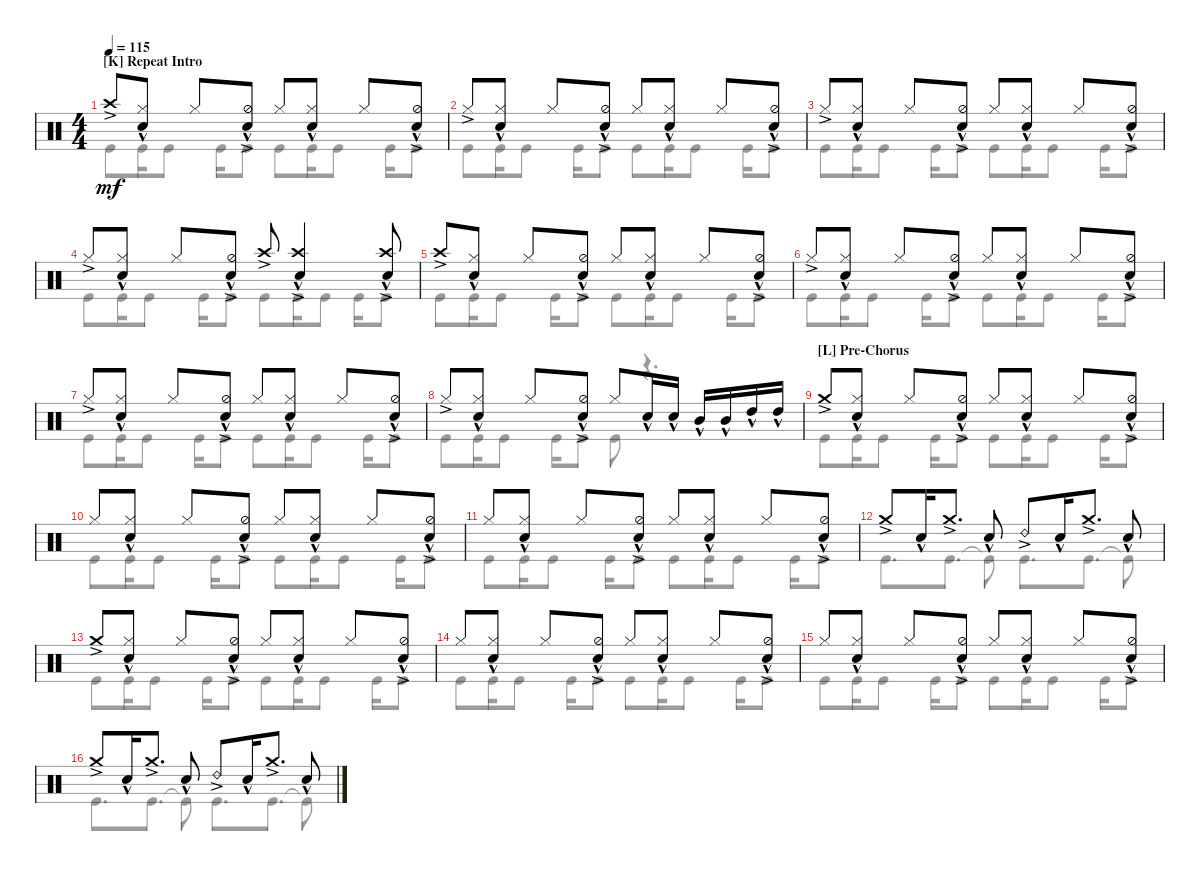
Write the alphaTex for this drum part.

\defaultSystemsLayout 4
\bracketExtendMode groupsimilarinstruments
\singleTrackTrackNamePolicy hidden
\multiTrackTrackNamePolicy hidden
\firstSystemTrackNameOrientation horizontal
\otherSystemsTrackNameOrientation horizontal
\track ("Maksim Udalov" "Drums") {instrument percussion}
\staff {score}
\articulation defaults
\voice
\ts (4 4)
\section ("K" "Repeat Intro")
\tempo 115
\clef neutral
\scale
1.02648
\ks c "Crash high (hit)"{ac}.8{dy mf}
("Hi-Hat (closed)" "Snare (hit) 2"{hac}).8 "Hi-Hat (closed)".8 ("Snare (hit) 2"{hac} "Hi-Hat (half)"{ac}).8 "Hi-Hat (closed)".8 ("Hi-Hat (closed)" "Snare (hit) 2"{hac}).8 "Hi-Hat (closed)".8 ("Snare (hit) 2"{hac} "Hi-Hat (half)"{ac}).8 |
\scale
0.973518 "Hi-Hat (closed)"{ac}.8 ("Hi-Hat (closed)" "Snare (hit) 2"{hac}).8 "Hi-Hat (closed)".8 ("Snare (hit) 2"{hac} "Hi-Hat (half)"{ac}).8 "Hi-Hat (closed)".8 ("Hi-Hat (closed)" "Snare (hit) 2"{hac}).8 "Hi-Hat (closed)".8 ("Snare (hit) 2"{hac} "Hi-Hat (half)"{ac}).8 |
\scale
1.02648 "Hi-Hat (closed)"{ac}.8 ("Hi-Hat (closed)" "Snare (hit) 2"{hac}).8 "Hi-Hat (closed)".8 ("Snare (hit) 2"{hac} "Hi-Hat (half)"{ac}).8 "Hi-Hat (closed)".8 ("Hi-Hat (closed)" "Snare (hit) 2"{hac}).8 "Hi-Hat (closed)".8 ("Snare (hit) 2"{hac} "Hi-Hat (half)"{ac}).8 |
\scale
0.973518 "Hi-Hat (closed)"{ac}.8 ("Hi-Hat (closed)" "Snare (hit) 2"{hac}).8 "Hi-Hat (closed)".8 ("Snare (hit) 2"{hac} "Hi-Hat (half)"{ac}).8 "Crash high (hit)"{ac}.8 ("Snare (hit) 2"{hac} "Crash high (hit)"{ac}).4 ("Snare (hit) 2"{hac} "Crash high (hit)"{ac}).8 |
\scale
1.02648 "Crash high (hit)"{ac}.8 ("Hi-Hat (closed)" "Snare (hit) 2"{hac}).8 "Hi-Hat (closed)".8 ("Snare (hit) 2"{hac} "Hi-Hat (half)"{ac}).8 "Hi-Hat (closed)".8 ("Hi-Hat (closed)" "Snare (hit) 2"{hac}).8 "Hi-Hat (closed)".8 ("Snare (hit) 2"{hac} "Hi-Hat (half)"{ac}).8 |
\scale
0.973518 "Hi-Hat (closed)"{ac}.8 ("Hi-Hat (closed)" "Snare (hit) 2"{hac}).8 "Hi-Hat (closed)".8 ("Snare (hit) 2"{hac} "Hi-Hat (half)"{ac}).8 "Hi-Hat (closed)".8 ("Hi-Hat (closed)" "Snare (hit) 2"{hac}).8 "Hi-Hat (closed)".8 ("Snare (hit) 2"{hac} "Hi-Hat (half)"{ac}).8 |
\scale
1.02648 "Hi-Hat (closed)"{ac}.8 ("Hi-Hat (closed)" "Snare (hit) 2"{hac}).8 "Hi-Hat (closed)".8 ("Snare (hit) 2"{hac} "Hi-Hat (half)"{ac}).8 "Hi-Hat (closed)".8 ("Hi-Hat (closed)" "Snare (hit) 2"{hac}).8 "Hi-Hat (closed)".8 ("Snare (hit) 2"{hac} "Hi-Hat (half)"{ac}).8 |
\scale
0.973518 "Hi-Hat (closed)"{ac}.8 ("Hi-Hat (closed)" "Snare (hit) 2"{hac}).8 "Hi-Hat (closed)".8 ("Snare (hit) 2"{hac} "Hi-Hat (half)"{ac}).8 "Hi-Hat (closed)".8 "Snare (hit) 2"{hac}.16 "Snare (hit) 2"{hac}.16 "Mid Tom (hit)"{hac}.16 "Mid Tom (hit)"{hac}.16 "High Tom (hit)"{hac}.16 "High Tom (hit)"{hac}.16 |
\section ("L" "Pre-Chorus")
\scale
1.02648 "Crash medium (hit)"{ac}.8 ("Hi-Hat (closed)" "Snare (hit) 2"{hac}).8 "Hi-Hat (closed)".8 ("Snare (hit) 2"{hac} "Hi-Hat (half)"{ac}).8 "Hi-Hat (closed)".8 ("Hi-Hat (closed)" "Snare (hit) 2"{hac}).8 "Hi-Hat (closed)".8 ("Snare (hit) 2"{hac} "Hi-Hat (half)"{ac}).8 |
\scale
0.973518 "Hi-Hat (closed)".8 ("Hi-Hat (closed)" "Snare (hit) 2"{hac}).8 "Hi-Hat (closed)".8 ("Snare (hit) 2"{hac} "Hi-Hat (half)"{ac}).8 "Hi-Hat (closed)".8 ("Hi-Hat (closed)" "Snare (hit) 2"{hac}).8 "Hi-Hat (closed)".8 ("Snare (hit) 2"{hac} "Hi-Hat (half)"{ac}).8 |
\scale
1.02648 "Hi-Hat (closed)".8 ("Hi-Hat (closed)" "Snare (hit) 2"{hac}).8 "Hi-Hat (closed)".8 ("Snare (hit) 2"{hac} "Hi-Hat (half)"{ac}).8 "Hi-Hat (closed)".8 ("Hi-Hat (closed)" "Snare (hit) 2"{hac}).8 "Hi-Hat (closed)".8 ("Snare (hit) 2"{hac} "Hi-Hat (half)"{ac}).8 |
\scale
0.973518 "Crash medium (hit)"{ac}.8 "Snare (hit) 2"{hac}.16 "Crash medium (hit)"{ac}.8{d} "Snare (hit) 2"{hac}.8 "Ride (bell) 2"{ac}.8 "Snare (hit) 2"{hac}.16 "Crash medium (hit)"{ac}.8{d} "Snare (hit) 2"{hac}.8 |
\scale
1.02648 "Crash medium (hit)"{ac}.8 ("Hi-Hat (closed)" "Snare (hit) 2"{hac}).8 "Hi-Hat (closed)".8 ("Snare (hit) 2"{hac} "Hi-Hat (half)"{ac}).8 "Hi-Hat (closed)".8 ("Hi-Hat (closed)" "Snare (hit) 2"{hac}).8 "Hi-Hat (closed)".8 ("Snare (hit) 2"{hac} "Hi-Hat (half)"{ac}).8 |
\scale
0.973518 "Hi-Hat (closed)".8 ("Hi-Hat (closed)" "Snare (hit) 2"{hac}).8 "Hi-Hat (closed)".8 ("Snare (hit) 2"{hac} "Hi-Hat (half)"{ac}).8 "Hi-Hat (closed)".8 ("Hi-Hat (closed)" "Snare (hit) 2"{hac}).8 "Hi-Hat (closed)".8 ("Snare (hit) 2"{hac} "Hi-Hat (half)"{ac}).8 |
\scale
1.02648 "Hi-Hat (closed)".8 ("Hi-Hat (closed)" "Snare (hit) 2"{hac}).8 "Hi-Hat (closed)".8 ("Snare (hit) 2"{hac} "Hi-Hat (half)"{ac}).8 "Hi-Hat (closed)".8 ("Hi-Hat (closed)" "Snare (hit) 2"{hac}).8 "Hi-Hat (closed)".8 ("Snare (hit) 2"{hac} "Hi-Hat (half)"{ac}).8 |
\scale
0.973518 "Crash medium (hit)"{ac}.8 "Snare (hit) 2"{hac}.16 "Crash medium (hit)"{ac}.8{d} "Snare (hit) 2"{hac}.8 "Ride (bell) 2"{ac}.8 "Snare (hit) 2"{hac}.16 "Crash medium (hit)"{ac}.8{d} "Snare (hit) 2"{hac}.8
\voice
\clef neutral
\ottava regular
\simile none
\scale
1.02648
\ks c "Kick (hit)".8{dy mf} "Kick (hit)".16 "Kick (hit)".8 "Kick (hit)".16 "Kick (hit)".8 "Kick (hit)".8 "Kick (hit)".16 "Kick (hit)".8 "Kick (hit)".16 "Kick (hit)".8
|
\scale
0.973518 "Kick (hit)".8 "Kick (hit)".16 "Kick (hit)".8 "Kick (hit)".16 "Kick (hit)".8 "Kick (hit)".8 "Kick (hit)".16 "Kick (hit)".8 "Kick (hit)".16 "Kick (hit)".8 |
\scale
1.02648 "Kick (hit)".8 "Kick (hit)".16 "Kick (hit)".8 "Kick (hit)".16 "Kick (hit)".8 "Kick (hit)".8 "Kick (hit)".16 "Kick (hit)".8 "Kick (hit)".16 "Kick (hit)".8 |
\scale
0.973518 "Kick (hit)".8 "Kick (hit)".16 "Kick (hit)".8 "Kick (hit)".16 "Kick (hit)".8 "Kick (hit)".8 "Kick (hit)".16 "Kick (hit)".8 "Kick (hit)".16 "Kick (hit)".8 |
\scale
1.02648 "Kick (hit)".8 "Kick (hit)".16 "Kick (hit)".8 "Kick (hit)".16 "Kick (hit)".8 "Kick (hit)".8 "Kick (hit)".16 "Kick (hit)".8 "Kick (hit)".16 "Kick (hit)".8 |
\scale
0.973518 "Kick (hit)".8 "Kick (hit)".16 "Kick (hit)".8 "Kick (hit)".16 "Kick (hit)".8 "Kick (hit)".8 "Kick (hit)".16 "Kick (hit)".8 "Kick (hit)".16 "Kick (hit)".8 |
\scale
1.02648 "Kick (hit)".8 "Kick (hit)".16 "Kick (hit)".8 "Kick (hit)".16 "Kick (hit)".8 "Kick (hit)".8 "Kick (hit)".16 "Kick (hit)".8 "Kick (hit)".16 "Kick (hit)".8 |
\scale
0.973518 "Kick (hit)".8 "Kick (hit)".16 "Kick (hit)".8 "Kick (hit)".16 "Kick (hit)".8 "Kick (hit)".8 r.4{d} |
\scale
1.02648 "Kick (hit)".8 "Kick (hit)".16 "Kick (hit)".8 "Kick (hit)".16 "Kick (hit)".8 "Kick (hit)".8 "Kick (hit)".16 "Kick (hit)".8 "Kick (hit)".16 "Kick (hit)".8 |
\scale
0.973518 "Kick (hit)".8 "Kick (hit)".16 "Kick (hit)".8 "Kick (hit)".16 "Kick (hit)".8 "Kick (hit)".8 "Kick (hit)".16 "Kick (hit)".8 "Kick (hit)".16 "Kick (hit)".8 |
\scale
1.02648 "Kick (hit)".8 "Kick (hit)".16 "Kick (hit)".8 "Kick (hit)".16 "Kick (hit)".8 "Kick (hit)".8 "Kick (hit)".16 "Kick (hit)".8 "Kick (hit)".16 "Kick (hit)".8 |
\scale
0.973518 "Kick (hit)".8{d} "Kick (hit)".8{d} "Kick (hit)"{t}.8 "Kick (hit)".8{d} "Kick (hit)".8{d} "Kick (hit)"{t}.8 |
\scale
1.02648 "Kick (hit)".8 "Kick (hit)".16 "Kick (hit)".8 "Kick (hit)".16 "Kick (hit)".8 "Kick (hit)".8 "Kick (hit)".16 "Kick (hit)".8 "Kick (hit)".16 "Kick (hit)".8 |
\scale
0.973518 "Kick (hit)".8 "Kick (hit)".16 "Kick (hit)".8 "Kick (hit)".16 "Kick (hit)".8 "Kick (hit)".8 "Kick (hit)".16 "Kick (hit)".8 "Kick (hit)".16 "Kick (hit)".8 |
\scale
1.02648 "Kick (hit)".8 "Kick (hit)".16 "Kick (hit)".8 "Kick (hit)".16 "Kick (hit)".8 "Kick (hit)".8 "Kick (hit)".16 "Kick (hit)".8 "Kick (hit)".16 "Kick (hit)".8 |
\scale
0.973518 "Kick (hit)".8{d} "Kick (hit)".8{d} "Kick (hit)"{t}.8 "Kick (hit)".8{d} "Kick (hit)".8{d} "Kick (hit)"{t}.8
